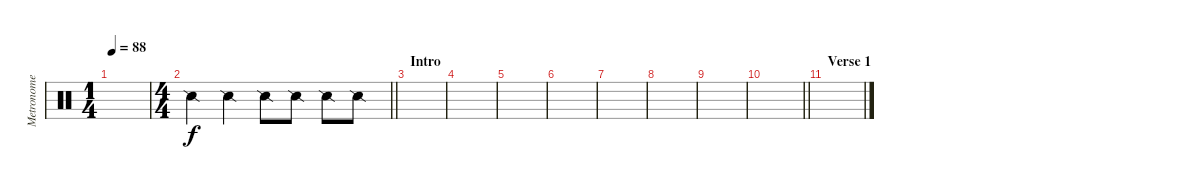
\track ("Metronome" "Metronome") {instrument percussion}
\staff {score}
\articulation defaults
\ts (1 4)
\tempo 88
\clef neutral
\ks c
|
\ts (4 4)
\barLineRight lightlight "Snare (side stick) 2".4 "Snare (side stick) 2".4 "Snare (side stick) 2".8 "Snare (side stick) 2".8 "Snare (side stick) 2".8 "Snare (side stick) 2".8
|
\section ("" "Intro")
|
|
|
|
|
|
|
\barLineRight lightlight
|
\section ("" "Verse 1")
